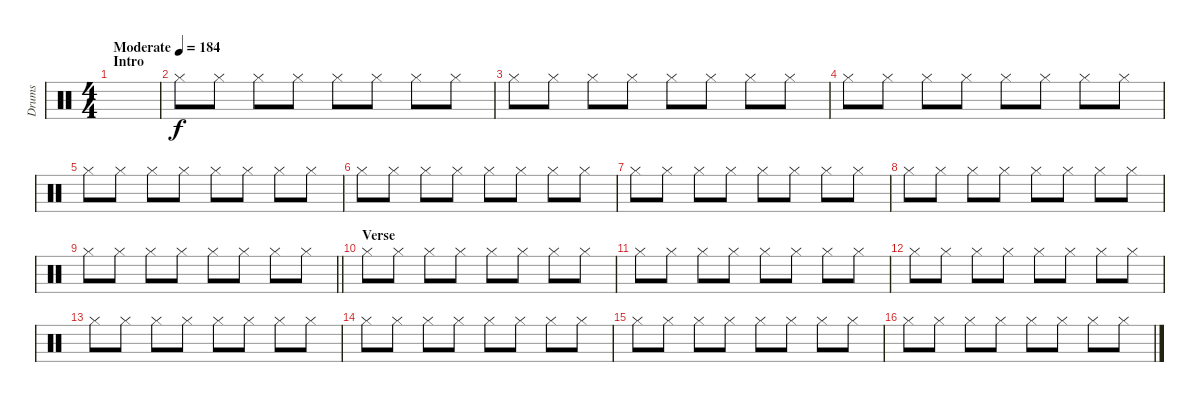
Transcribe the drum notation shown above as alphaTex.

\track ("Drums" "Drums") {instrument percussion}
\staff {score}
\articulation defaults
\ts (4 4)
\section ("" "Intro")
\tempo (184 "Moderate")
\clef neutral
\ks c
|
"Hi-Hat (closed)".8 "Hi-Hat (closed)".8 "Hi-Hat (closed)".8 "Hi-Hat (closed)".8 "Hi-Hat (closed)".8 "Hi-Hat (closed)".8 "Hi-Hat (closed)".8 "Hi-Hat (closed)".8 |
"Hi-Hat (closed)".8 "Hi-Hat (closed)".8 "Hi-Hat (closed)".8 "Hi-Hat (closed)".8 "Hi-Hat (closed)".8 "Hi-Hat (closed)".8 "Hi-Hat (closed)".8 "Hi-Hat (closed)".8 |
"Hi-Hat (closed)".8 "Hi-Hat (closed)".8 "Hi-Hat (closed)".8 "Hi-Hat (closed)".8 "Hi-Hat (closed)".8 "Hi-Hat (closed)".8 "Hi-Hat (closed)".8 "Hi-Hat (closed)".8 |
"Hi-Hat (closed)".8 "Hi-Hat (closed)".8 "Hi-Hat (closed)".8 "Hi-Hat (closed)".8 "Hi-Hat (closed)".8 "Hi-Hat (closed)".8 "Hi-Hat (closed)".8 "Hi-Hat (closed)".8 |
"Hi-Hat (closed)".8 "Hi-Hat (closed)".8 "Hi-Hat (closed)".8 "Hi-Hat (closed)".8 "Hi-Hat (closed)".8 "Hi-Hat (closed)".8 "Hi-Hat (closed)".8 "Hi-Hat (closed)".8 |
"Hi-Hat (closed)".8 "Hi-Hat (closed)".8 "Hi-Hat (closed)".8 "Hi-Hat (closed)".8 "Hi-Hat (closed)".8 "Hi-Hat (closed)".8 "Hi-Hat (closed)".8 "Hi-Hat (closed)".8 |
"Hi-Hat (closed)".8 "Hi-Hat (closed)".8 "Hi-Hat (closed)".8 "Hi-Hat (closed)".8 "Hi-Hat (closed)".8 "Hi-Hat (closed)".8 "Hi-Hat (closed)".8 "Hi-Hat (closed)".8 |
\barLineRight lightlight "Hi-Hat (closed)".8 "Hi-Hat (closed)".8 "Hi-Hat (closed)".8 "Hi-Hat (closed)".8 "Hi-Hat (closed)".8 "Hi-Hat (closed)".8 "Hi-Hat (closed)".8 "Hi-Hat (closed)".8
|
\section ("" "Verse ")
"Hi-Hat (closed)".8 "Hi-Hat (closed)".8 "Hi-Hat (closed)".8 "Hi-Hat (closed)".8 "Hi-Hat (closed)".8 "Hi-Hat (closed)".8 "Hi-Hat (closed)".8 "Hi-Hat (closed)".8 |
"Hi-Hat (closed)".8 "Hi-Hat (closed)".8 "Hi-Hat (closed)".8 "Hi-Hat (closed)".8 "Hi-Hat (closed)".8 "Hi-Hat (closed)".8 "Hi-Hat (closed)".8 "Hi-Hat (closed)".8 |
"Hi-Hat (closed)".8 "Hi-Hat (closed)".8 "Hi-Hat (closed)".8 "Hi-Hat (closed)".8 "Hi-Hat (closed)".8 "Hi-Hat (closed)".8 "Hi-Hat (closed)".8 "Hi-Hat (closed)".8 |
"Hi-Hat (closed)".8 "Hi-Hat (closed)".8 "Hi-Hat (closed)".8 "Hi-Hat (closed)".8 "Hi-Hat (closed)".8 "Hi-Hat (closed)".8 "Hi-Hat (closed)".8 "Hi-Hat (closed)".8 |
"Hi-Hat (closed)".8 "Hi-Hat (closed)".8 "Hi-Hat (closed)".8 "Hi-Hat (closed)".8 "Hi-Hat (closed)".8 "Hi-Hat (closed)".8 "Hi-Hat (closed)".8 "Hi-Hat (closed)".8 |
"Hi-Hat (closed)".8 "Hi-Hat (closed)".8 "Hi-Hat (closed)".8 "Hi-Hat (closed)".8 "Hi-Hat (closed)".8 "Hi-Hat (closed)".8 "Hi-Hat (closed)".8 "Hi-Hat (closed)".8 |
"Hi-Hat (closed)".8 "Hi-Hat (closed)".8 "Hi-Hat (closed)".8 "Hi-Hat (closed)".8 "Hi-Hat (closed)".8 "Hi-Hat (closed)".8 "Hi-Hat (closed)".8 "Hi-Hat (closed)".8
